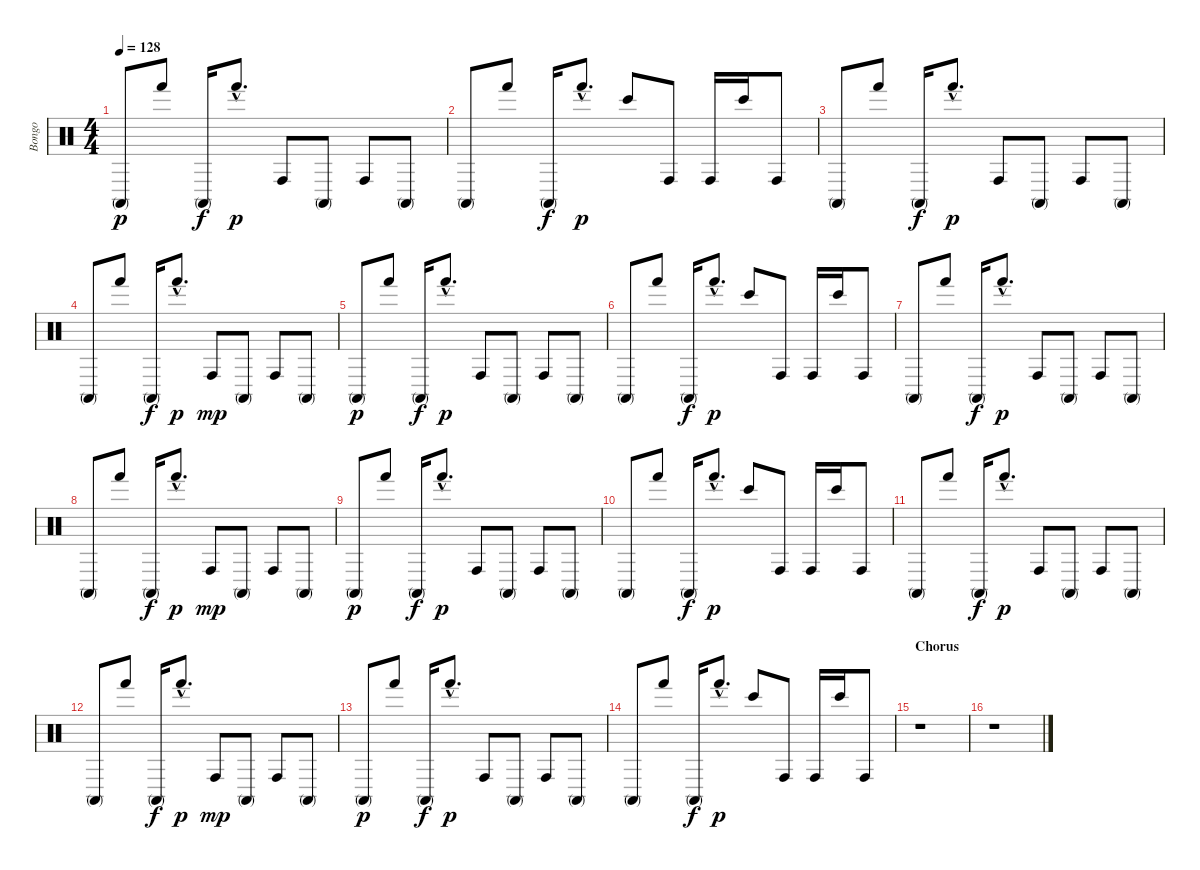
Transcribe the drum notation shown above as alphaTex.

\track ("Bongo" "Bongo") {instrument percussion}
\staff {score}
\articulation defaults
\ts (4 4)
\tempo 128
\clef neutral
\ks c "Conga high (mute)".8{dy p} "Hand (hit)".8 "Conga high (mute)".16{dy f} "Hand (hit)"{hac}.8{d dy p} "Conga high (hit)".8 "Conga high (mute)".8 "Conga high (hit)".8 "Conga high (mute)".8
|
"Conga high (mute)".8 "Hand (hit)".8 "Conga high (mute)".16{dy f} "Hand (hit)"{hac}.8{d dy p} "Bongo High (hit)".8 "Conga high (hit)".8 "Conga high (hit)".16 "Bongo High (hit)".16 "Conga high (hit)".8 |
"Conga high (mute)".8 "Hand (hit)".8 "Conga high (mute)".16{dy f} "Hand (hit)"{hac}.8{d dy p} "Conga high (hit)".8 "Conga high (mute)".8 "Conga high (hit)".8 "Conga high (mute)".8 |
"Conga high (mute)".8 "Hand (hit)".8 "Conga high (mute)".16{dy f} "Hand (hit)"{hac}.8{d dy p} "Conga high (hit)".8{dy mp} "Conga high (mute)".8 "Conga high (hit)".8 "Conga high (mute)".8 |
"Conga high (mute)".8{dy p} "Hand (hit)".8 "Conga high (mute)".16{dy f} "Hand (hit)"{hac}.8{d dy p} "Conga high (hit)".8 "Conga high (mute)".8 "Conga high (hit)".8 "Conga high (mute)".8 |
"Conga high (mute)".8 "Hand (hit)".8 "Conga high (mute)".16{dy f} "Hand (hit)"{hac}.8{d dy p} "Bongo High (hit)".8 "Conga high (hit)".8 "Conga high (hit)".16 "Bongo High (hit)".16 "Conga high (hit)".8 |
"Conga high (mute)".8 "Hand (hit)".8 "Conga high (mute)".16{dy f} "Hand (hit)"{hac}.8{d dy p} "Conga high (hit)".8 "Conga high (mute)".8 "Conga high (hit)".8 "Conga high (mute)".8 |
"Conga high (mute)".8 "Hand (hit)".8 "Conga high (mute)".16{dy f} "Hand (hit)"{hac}.8{d dy p} "Conga high (hit)".8{dy mp} "Conga high (mute)".8 "Conga high (hit)".8 "Conga high (mute)".8 |
"Conga high (mute)".8{dy p} "Hand (hit)".8 "Conga high (mute)".16{dy f} "Hand (hit)"{hac}.8{d dy p} "Conga high (hit)".8 "Conga high (mute)".8 "Conga high (hit)".8 "Conga high (mute)".8 |
"Conga high (mute)".8 "Hand (hit)".8 "Conga high (mute)".16{dy f} "Hand (hit)"{hac}.8{d dy p} "Bongo High (hit)".8 "Conga high (hit)".8 "Conga high (hit)".16 "Bongo High (hit)".16 "Conga high (hit)".8 |
"Conga high (mute)".8 "Hand (hit)".8 "Conga high (mute)".16{dy f} "Hand (hit)"{hac}.8{d dy p} "Conga high (hit)".8 "Conga high (mute)".8 "Conga high (hit)".8 "Conga high (mute)".8 |
"Conga high (mute)".8 "Hand (hit)".8 "Conga high (mute)".16{dy f} "Hand (hit)"{hac}.8{d dy p} "Conga high (hit)".8{dy mp} "Conga high (mute)".8 "Conga high (hit)".8 "Conga high (mute)".8 |
"Conga high (mute)".8{dy p} "Hand (hit)".8 "Conga high (mute)".16{dy f} "Hand (hit)"{hac}.8{d dy p} "Conga high (hit)".8 "Conga high (mute)".8 "Conga high (hit)".8 "Conga high (mute)".8 |
"Conga high (mute)".8 "Hand (hit)".8 "Conga high (mute)".16{dy f} "Hand (hit)"{hac}.8{d dy p} "Bongo High (hit)".8 "Conga high (hit)".8 "Conga high (hit)".16 "Bongo High (hit)".16 "Conga high (hit)".8 |
\section ("" "Chorus")
r.1 |
r.1
